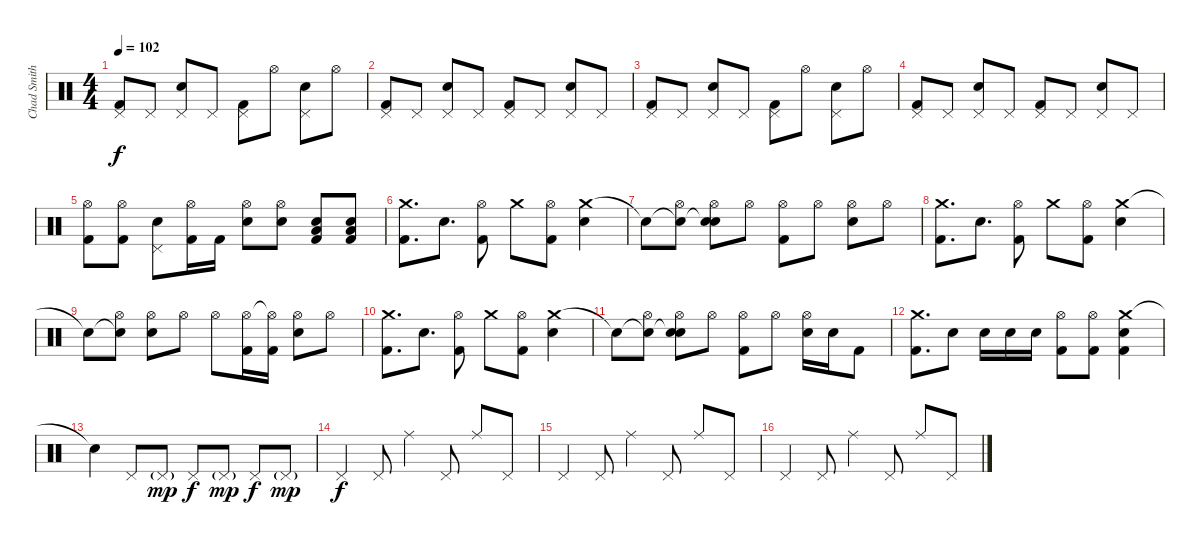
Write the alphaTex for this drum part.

\track ("Chad Smith (Batterie)" "Chad Smith") {instrument percussion}
\staff {score}
\articulation defaults
\ts (4 4)
\tempo 102
\clef neutral
\ks c
("Pedal Hi-Hat (hit)" "Kick (hit) 2").8{dy f} "Pedal Hi-Hat (hit)".8 ("Pedal Hi-Hat (hit)" "Electric Snare (hit)").8 "Pedal Hi-Hat (hit)".8 ("Pedal Hi-Hat (hit)" "Kick (hit) 2").8 "Hi-Hat (open)".8 ("Pedal Hi-Hat (hit)" "Electric Snare (hit)").8 "Hi-Hat (open)".8 |
("Pedal Hi-Hat (hit)" "Kick (hit) 2").8 "Pedal Hi-Hat (hit)".8 ("Pedal Hi-Hat (hit)" "Electric Snare (hit)").8 "Pedal Hi-Hat (hit)".8 ("Pedal Hi-Hat (hit)" "Kick (hit) 2").8 "Pedal Hi-Hat (hit)".8 ("Pedal Hi-Hat (hit)" "Electric Snare (hit)").8 "Pedal Hi-Hat (hit)".8 |
("Pedal Hi-Hat (hit)" "Kick (hit) 2").8 "Pedal Hi-Hat (hit)".8 ("Pedal Hi-Hat (hit)" "Electric Snare (hit)").8 "Pedal Hi-Hat (hit)".8 ("Pedal Hi-Hat (hit)" "Kick (hit) 2").8 "Hi-Hat (open)".8 ("Pedal Hi-Hat (hit)" "Electric Snare (hit)").8 "Hi-Hat (open)".8 |
("Pedal Hi-Hat (hit)" "Kick (hit) 2").8 "Pedal Hi-Hat (hit)".8 ("Pedal Hi-Hat (hit)" "Electric Snare (hit)").8 "Pedal Hi-Hat (hit)".8 ("Pedal Hi-Hat (hit)" "Kick (hit) 2").8 "Pedal Hi-Hat (hit)".8 ("Pedal Hi-Hat (hit)" "Electric Snare (hit)").8 "Pedal Hi-Hat (hit)".8 |
("Hi-Hat (open)" "Kick (hit) 2").8 ("Hi-Hat (open)" "Kick (hit) 2").8 ("Pedal Hi-Hat (hit)" "Electric Snare (hit)").8 ("Hi-Hat (open)" "Kick (hit) 2").16 "Kick (hit) 2".16 ("Hi-Hat (open)" "Electric Snare (hit)").8 ("Hi-Hat (open)" "Electric Snare (hit)").8 ("Low Tom (hit)" "Electric Snare (hit)" "Kick (hit) 2").8 ("Low Tom (hit)" "Electric Snare (hit)" "Kick (hit) 2").8 |
("Crash medium (hit)" "Kick (hit) 2").8{d} "Electric Snare (hit)".8{d} ("Hi-Hat (open)" "Kick (hit) 2").8 "Crash medium (hit)".8 ("Hi-Hat (open)" "Kick (hit) 2").8 ("Crash medium (hit)" "Electric Snare (hit)").4 |
"Snare (hit)"{t}.8 ("Snare (hit)"{t} "Hi-Hat (open)").8 ("Snare (hit)"{t} "Hi-Hat (open)" "Electric Snare (hit)").8 "Hi-Hat (open)".8 ("Hi-Hat (open)" "Kick (hit) 2").8 "Hi-Hat (open)".8 ("Hi-Hat (open)" "Electric Snare (hit)").8 "Hi-Hat (open)".8 |
("Crash medium (hit)" "Kick (hit) 2").8{d} "Electric Snare (hit)".8{d} ("Hi-Hat (open)" "Kick (hit) 2").8 "Crash medium (hit)".8 ("Hi-Hat (open)" "Kick (hit) 2").8 ("Crash medium (hit)" "Electric Snare (hit)").4 |
"Snare (hit)"{t}.8 ("Snare (hit)"{t} "Hi-Hat (open)").8 ("Hi-Hat (open)" "Electric Snare (hit)").8 "Hi-Hat (open)".8 "Hi-Hat (open)".8 ("Hi-Hat (open)" "Kick (hit) 2").16 ("Hi-Hat (open)"{t} "Kick (hit) 2").16 ("Hi-Hat (open)" "Electric Snare (hit)").8 "Hi-Hat (open)".8 |
("Crash medium (hit)" "Kick (hit) 2").8{d} "Electric Snare (hit)".8{d} ("Hi-Hat (open)" "Kick (hit) 2").8 "Crash medium (hit)".8 ("Hi-Hat (open)" "Kick (hit) 2").8 ("Crash medium (hit)" "Electric Snare (hit)").4 |
"Snare (hit)"{t}.8 ("Snare (hit)"{t} "Hi-Hat (open)").8 ("Snare (hit)"{t} "Hi-Hat (open)" "Electric Snare (hit)").8 "Hi-Hat (open)".8 ("Hi-Hat (open)" "Kick (hit) 2").8 "Hi-Hat (open)".8 ("Hi-Hat (open)" "Electric Snare (hit)").16 "Electric Snare (hit)".16 "Kick (hit) 2".8 |
("Crash medium (hit)" "Kick (hit) 2").8{d} "Electric Snare (hit)".8 "Electric Snare (hit)".16 "Electric Snare (hit)".16 "Electric Snare (hit)".16 ("Hi-Hat (open)" "Kick (hit) 2").8 ("Hi-Hat (open)" "Kick (hit) 2").8 ("Crash medium (hit)" "Electric Snare (hit)" "Kick (hit) 2").4 |
"Snare (hit)"{t}.4 "Pedal Hi-Hat (hit)".8 "Pedal Hi-Hat (hit)"{g}.8{dy mp} "Pedal Hi-Hat (hit)".8{dy f} "Pedal Hi-Hat (hit)"{g}.8{dy mp} "Pedal Hi-Hat (hit)".8{dy f} "Pedal Hi-Hat (hit)"{g}.8{dy mp} |
"Pedal Hi-Hat (hit)".4{dy f} "Pedal Hi-Hat (hit)".8 "Ride (middle)".4 "Pedal Hi-Hat (hit)".8 "Ride (middle)".8 "Pedal Hi-Hat (hit)".8 |
"Pedal Hi-Hat (hit)".4 "Pedal Hi-Hat (hit)".8 "Ride (middle)".4 "Pedal Hi-Hat (hit)".8 "Ride (middle)".8 "Pedal Hi-Hat (hit)".8 |
"Pedal Hi-Hat (hit)".4 "Pedal Hi-Hat (hit)".8 "Ride (middle)".4 "Pedal Hi-Hat (hit)".8 "Ride (middle)".8 "Pedal Hi-Hat (hit)".8
